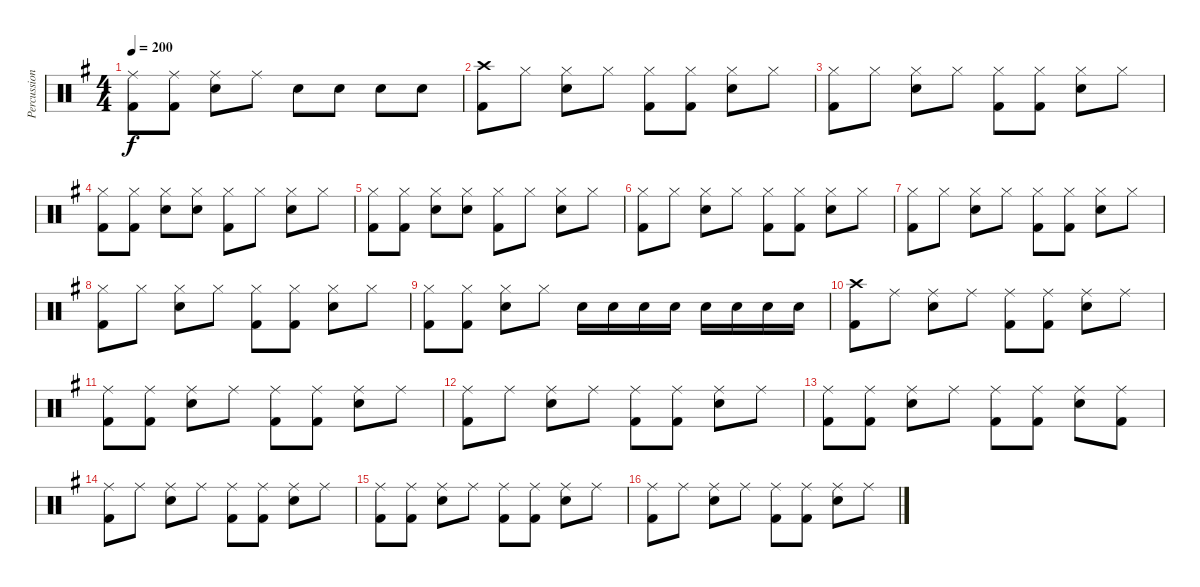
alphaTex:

\track ("Percussion" "Percussion") {instrument percussion}
\staff {score}
\articulation defaults
\ts (4 4)
\tempo 200
\clef neutral
\ks eminor
("Ride (middle)" "Kick (hit) 2").8{dy f} ("Ride (middle)" "Kick (hit) 2").8 ("Ride (middle)" "Snare (hit) 2").8 "Ride (middle)".8 "Snare (hit) 2".8 "Snare (hit) 2".8 "Snare (hit) 2".8 "Snare (hit) 2".8 |
("Crash high (hit)" "Kick (hit) 2").8 "Hi-Hat (closed)".8 ("Hi-Hat (closed)" "Snare (hit) 2").8 "Hi-Hat (closed)".8 ("Hi-Hat (closed)" "Kick (hit) 2").8 ("Hi-Hat (closed)" "Kick (hit) 2").8 ("Hi-Hat (closed)" "Snare (hit) 2").8 "Hi-Hat (closed)".8 |
("Hi-Hat (closed)" "Kick (hit) 2").8 "Hi-Hat (closed)".8 ("Hi-Hat (closed)" "Snare (hit) 2").8 "Hi-Hat (closed)".8 ("Hi-Hat (closed)" "Kick (hit) 2").8 ("Hi-Hat (closed)" "Kick (hit) 2").8 ("Hi-Hat (closed)" "Snare (hit) 2").8 "Hi-Hat (closed)".8 |
("Hi-Hat (closed)" "Kick (hit) 2").8 ("Hi-Hat (closed)" "Kick (hit) 2").8 ("Hi-Hat (closed)" "Snare (hit) 2").8 ("Hi-Hat (closed)" "Snare (hit) 2").8 ("Hi-Hat (closed)" "Kick (hit) 2").8 "Hi-Hat (closed)".8 ("Hi-Hat (closed)" "Snare (hit) 2").8 "Hi-Hat (closed)".8 |
("Hi-Hat (closed)" "Kick (hit) 2").8 ("Hi-Hat (closed)" "Kick (hit) 2").8 ("Hi-Hat (closed)" "Snare (hit) 2").8 ("Hi-Hat (closed)" "Snare (hit) 2").8 ("Hi-Hat (closed)" "Kick (hit) 2").8 "Hi-Hat (closed)".8 ("Hi-Hat (closed)" "Snare (hit) 2").8 "Hi-Hat (closed)".8 |
("Hi-Hat (closed)" "Kick (hit) 2").8 "Hi-Hat (closed)".8 ("Hi-Hat (closed)" "Snare (hit) 2").8 "Hi-Hat (closed)".8 ("Hi-Hat (closed)" "Kick (hit) 2").8 ("Hi-Hat (closed)" "Kick (hit) 2").8 ("Hi-Hat (closed)" "Snare (hit) 2").8 "Hi-Hat (closed)".8 |
("Hi-Hat (closed)" "Kick (hit) 2").8 "Hi-Hat (closed)".8 ("Hi-Hat (closed)" "Snare (hit) 2").8 "Hi-Hat (closed)".8 ("Hi-Hat (closed)" "Kick (hit) 2").8 ("Hi-Hat (closed)" "Kick (hit) 2").8 ("Hi-Hat (closed)" "Snare (hit) 2").8 "Hi-Hat (closed)".8 |
("Hi-Hat (closed)" "Kick (hit) 2").8 "Hi-Hat (closed)".8 ("Hi-Hat (closed)" "Snare (hit) 2").8 "Hi-Hat (closed)".8 ("Hi-Hat (closed)" "Kick (hit) 2").8 ("Hi-Hat (closed)" "Kick (hit) 2").8 ("Hi-Hat (closed)" "Snare (hit) 2").8 "Hi-Hat (closed)".8 |
("Hi-Hat (closed)" "Kick (hit) 2").8 ("Hi-Hat (closed)" "Kick (hit) 2").8 ("Hi-Hat (closed)" "Snare (hit) 2").8 "Hi-Hat (closed)".8 "Snare (hit) 2".16 "Snare (hit) 2".16 "Snare (hit) 2".16 "Snare (hit) 2".16 "Snare (hit) 2".16 "Snare (hit) 2".16 "Snare (hit) 2".16 "Snare (hit) 2".16 |
("Crash high (hit)" "Kick (hit) 2").8 "Ride (middle)".8 ("Ride (middle)" "Snare (hit) 2").8 "Ride (middle)".8 ("Ride (middle)" "Kick (hit) 2").8 ("Ride (middle)" "Kick (hit) 2").8 ("Ride (middle)" "Snare (hit) 2").8 "Ride (middle)".8 |
("Ride (middle)" "Kick (hit) 2").8 ("Ride (middle)" "Kick (hit) 2").8 ("Ride (middle)" "Snare (hit) 2").8 "Ride (middle)".8 ("Ride (middle)" "Kick (hit) 2").8 ("Ride (middle)" "Kick (hit) 2").8 ("Ride (middle)" "Snare (hit) 2").8 "Ride (middle)".8 |
("Ride (middle)" "Kick (hit) 2").8 "Ride (middle)".8 ("Ride (middle)" "Snare (hit) 2").8 "Ride (middle)".8 ("Ride (middle)" "Kick (hit) 2").8 ("Ride (middle)" "Kick (hit) 2").8 ("Ride (middle)" "Snare (hit) 2").8 "Ride (middle)".8 |
("Ride (middle)" "Kick (hit) 2").8 ("Ride (middle)" "Kick (hit) 2").8 ("Ride (middle)" "Snare (hit) 2").8 "Ride (middle)".8 ("Ride (middle)" "Kick (hit) 2").8 ("Ride (middle)" "Kick (hit) 2").8 ("Ride (middle)" "Snare (hit) 2").8 ("Ride (middle)" "Kick (hit) 2").8 |
("Ride (middle)" "Kick (hit) 2").8 "Ride (middle)".8 ("Ride (middle)" "Snare (hit) 2").8 "Ride (middle)".8 ("Ride (middle)" "Kick (hit) 2").8 ("Ride (middle)" "Kick (hit) 2").8 ("Ride (middle)" "Snare (hit) 2").8 "Ride (middle)".8 |
("Ride (middle)" "Kick (hit) 2").8 ("Ride (middle)" "Kick (hit) 2").8 ("Ride (middle)" "Snare (hit) 2").8 "Ride (middle)".8 ("Ride (middle)" "Kick (hit) 2").8 ("Ride (middle)" "Kick (hit) 2").8 ("Ride (middle)" "Snare (hit) 2").8 "Ride (middle)".8 |
("Ride (middle)" "Kick (hit) 2").8 "Ride (middle)".8 ("Ride (middle)" "Snare (hit) 2").8 "Ride (middle)".8 ("Ride (middle)" "Kick (hit) 2").8 ("Ride (middle)" "Kick (hit) 2").8 ("Ride (middle)" "Snare (hit) 2").8 "Ride (middle)".8
